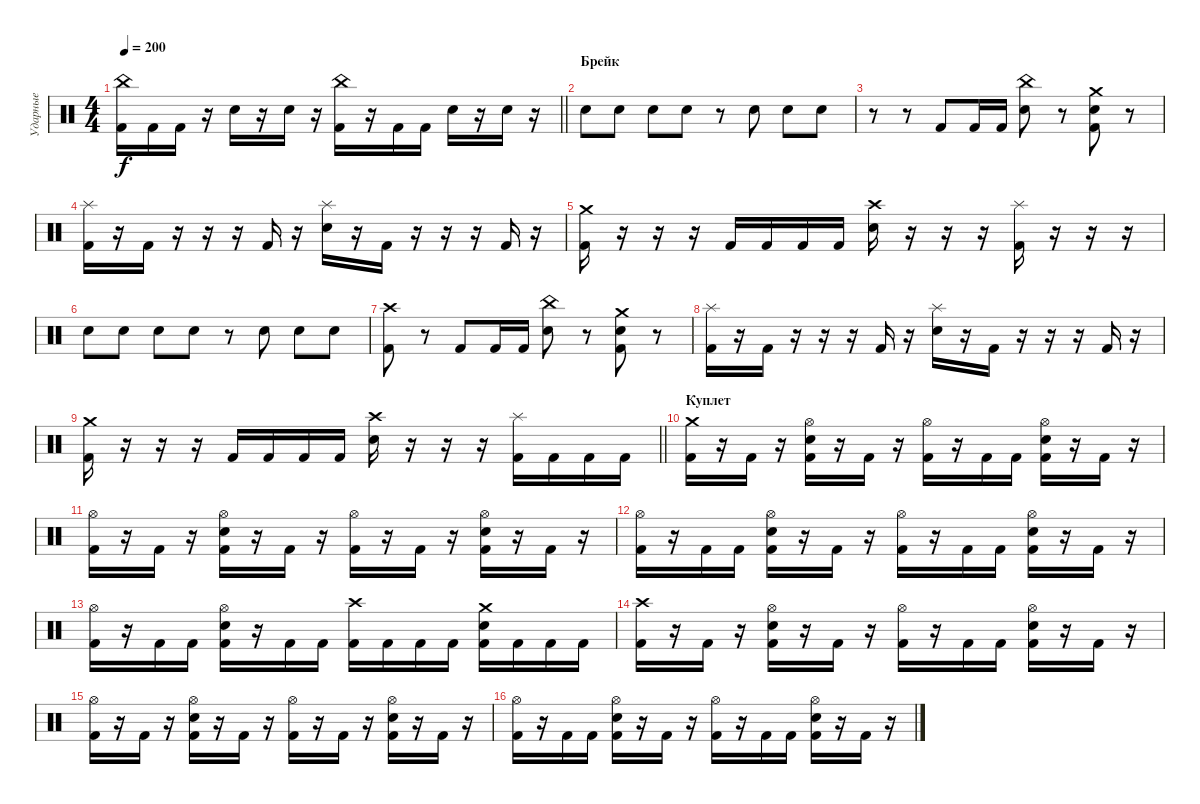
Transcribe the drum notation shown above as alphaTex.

\track ("Ударные" "Ударные") {instrument percussion}
\staff {score}
\articulation defaults
\ts (4 4)
\tempo 200
\clef neutral
\barLineRight lightlight
\ks c
("Kick (hit) 2" "China (hit)").16{dy f} "Kick (hit) 2".16 "Kick (hit) 2".16 r.16 "Electric Snare (hit)".16 r.16 "Electric Snare (hit)".16 r.16 ("Kick (hit) 2" "China (hit)").16 r.16 "Kick (hit) 2".16 "Kick (hit) 2".16 "Electric Snare (hit)".16 r.16 "Electric Snare (hit)".16 r.16 |
\section ("" "Брейк")
"Electric Snare (hit)".8 "Electric Snare (hit)".8 "Electric Snare (hit)".8 "Electric Snare (hit)".8 r.8 "Electric Snare (hit)".8 "Electric Snare (hit)".8 "Electric Snare (hit)".8 |
r.8 r.8 "Kick (hit) 2".8 "Kick (hit) 2".16 "Kick (hit) 2".16 ("Electric Snare (hit)" "China (hit)").8 r.8 ("Kick (hit) 2" "Electric Snare (hit)" "Crash medium (hit)").8 r.8 |
("Kick (hit) 2" "Splash (hit)").16 r.16 "Kick (hit) 2".16 r.16 r.16 r.16 "Kick (hit) 2".16 r.16 ("Electric Snare (hit)" "Splash (hit)").16 r.16 "Kick (hit) 2".16 r.16 r.16 r.16 "Kick (hit) 2".16 r.16 |
("Kick (hit) 2" "Crash medium (hit)").16 r.16 r.16 r.16 "Kick (hit) 2".16 "Kick (hit) 2".16 "Kick (hit) 2".16 "Kick (hit) 2".16 ("Electric Snare (hit)" "Crash high (hit)").16 r.16 r.16 r.16 ("Kick (hit) 2" "Splash (hit)").16 r.16 r.16 r.16 |
"Electric Snare (hit)".8 "Electric Snare (hit)".8 "Electric Snare (hit)".8 "Electric Snare (hit)".8 r.8 "Electric Snare (hit)".8 "Electric Snare (hit)".8 "Electric Snare (hit)".8 |
("Kick (hit) 2" "Crash high (hit)").8 r.8 "Kick (hit) 2".8 "Kick (hit) 2".16 "Kick (hit) 2".16 ("Electric Snare (hit)" "China (hit)").8 r.8 ("Kick (hit) 2" "Electric Snare (hit)" "Crash medium (hit)").8 r.8 |
("Kick (hit) 2" "Splash (hit)").16 r.16 "Kick (hit) 2".16 r.16 r.16 r.16 "Kick (hit) 2".16 r.16 ("Electric Snare (hit)" "Splash (hit)").16 r.16 "Kick (hit) 2".16 r.16 r.16 r.16 "Kick (hit) 2".16 r.16 |
\barLineRight lightlight
("Kick (hit) 2" "Crash medium (hit)").16 r.16 r.16 r.16 "Kick (hit) 2".16 "Kick (hit) 2".16 "Kick (hit) 2".16 "Kick (hit) 2".16 ("Electric Snare (hit)" "Crash high (hit)").16 r.16 r.16 r.16 ("Kick (hit) 2" "Splash (hit)").16 "Kick (hit) 2".16 "Kick (hit) 2".16 "Kick (hit) 2".16 |
\section ("" "Куплет")
("Kick (hit) 2" "Crash medium (hit)").16 r.16 "Kick (hit) 2".16 r.16 ("Kick (hit) 2" "Electric Snare (hit)" "Hi-Hat (open)").16 r.16 "Kick (hit) 2".16 r.16 ("Kick (hit) 2" "Hi-Hat (open)").16 r.16 "Kick (hit) 2".16 "Kick (hit) 2".16 ("Kick (hit) 2" "Electric Snare (hit)" "Hi-Hat (open)").16 r.16 "Kick (hit) 2".16 r.16 |
("Kick (hit) 2" "Hi-Hat (open)").16 r.16 "Kick (hit) 2".16 r.16 ("Kick (hit) 2" "Electric Snare (hit)" "Hi-Hat (open)").16 r.16 "Kick (hit) 2".16 r.16 ("Kick (hit) 2" "Hi-Hat (open)").16 r.16 "Kick (hit) 2".16 r.16 ("Kick (hit) 2" "Electric Snare (hit)" "Hi-Hat (open)").16 r.16 "Kick (hit) 2".16 r.16 |
("Kick (hit) 2" "Hi-Hat (open)").16 r.16 "Kick (hit) 2".16 "Kick (hit) 2".16 ("Kick (hit) 2" "Electric Snare (hit)" "Hi-Hat (open)").16 r.16 "Kick (hit) 2".16 r.16 ("Kick (hit) 2" "Hi-Hat (open)").16 r.16 "Kick (hit) 2".16 "Kick (hit) 2".16 ("Kick (hit) 2" "Electric Snare (hit)" "Hi-Hat (open)").16 r.16 "Kick (hit) 2".16 r.16 |
("Kick (hit) 2" "Hi-Hat (open)").16 r.16 "Kick (hit) 2".16 "Kick (hit) 2".16 ("Kick (hit) 2" "Electric Snare (hit)" "Hi-Hat (open)").16 r.16 "Kick (hit) 2".16 "Kick (hit) 2".16 ("Kick (hit) 2" "Crash high (hit)").16 "Kick (hit) 2".16 "Kick (hit) 2".16 "Kick (hit) 2".16 ("Kick (hit) 2" "Electric Snare (hit)" "Crash medium (hit)").16 "Kick (hit) 2".16 "Kick (hit) 2".16 "Kick (hit) 2".16 |
("Kick (hit) 2" "Crash high (hit)").16 r.16 "Kick (hit) 2".16 r.16 ("Kick (hit) 2" "Electric Snare (hit)" "Hi-Hat (open)").16 r.16 "Kick (hit) 2".16 r.16 ("Kick (hit) 2" "Hi-Hat (open)").16 r.16 "Kick (hit) 2".16 "Kick (hit) 2".16 ("Kick (hit) 2" "Electric Snare (hit)" "Hi-Hat (open)").16 r.16 "Kick (hit) 2".16 r.16 |
("Kick (hit) 2" "Hi-Hat (open)").16 r.16 "Kick (hit) 2".16 r.16 ("Kick (hit) 2" "Electric Snare (hit)" "Hi-Hat (open)").16 r.16 "Kick (hit) 2".16 r.16 ("Kick (hit) 2" "Hi-Hat (open)").16 r.16 "Kick (hit) 2".16 r.16 ("Kick (hit) 2" "Electric Snare (hit)" "Hi-Hat (open)").16 r.16 "Kick (hit) 2".16 r.16 |
("Kick (hit) 2" "Hi-Hat (open)").16 r.16 "Kick (hit) 2".16 "Kick (hit) 2".16 ("Kick (hit) 2" "Electric Snare (hit)" "Hi-Hat (open)").16 r.16 "Kick (hit) 2".16 r.16 ("Kick (hit) 2" "Hi-Hat (open)").16 r.16 "Kick (hit) 2".16 "Kick (hit) 2".16 ("Kick (hit) 2" "Electric Snare (hit)" "Hi-Hat (open)").16 r.16 "Kick (hit) 2".16 r.16
